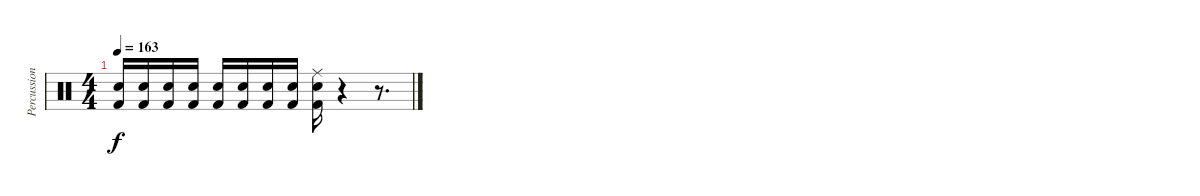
\track ("Percussion" "Percussion") {instrument percussion}
\staff {score}
\articulation defaults
\ts (4 4)
\tempo 163
\clef neutral
\ks c
("Kick (hit) 2" "Electric Snare (hit)").16{dy f} ("Kick (hit) 2" "Electric Snare (hit)").16 ("Kick (hit) 2" "Electric Snare (hit)").16 ("Kick (hit) 2" "Electric Snare (hit)").16 ("Kick (hit) 2" "Electric Snare (hit)").16 ("Kick (hit) 2" "Electric Snare (hit)").16 ("Kick (hit) 2" "Electric Snare (hit)").16 ("Kick (hit) 2" "Electric Snare (hit)").16 ("Ride (middle)" "Kick (hit) 2" "Electric Snare (hit)").16 r.4 r.8{d}
